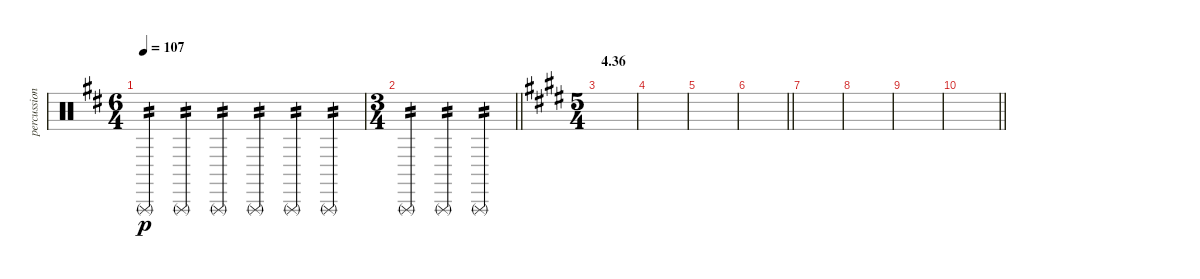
\track ("percussion" "percussion") {instrument percussion}
\staff {score}
\articulation defaults
\ts (6 4)
\tempo 107
\clef neutral
\ks d "Triangle (rnute)".4{tp 2 dy p} "Triangle (rnute)".4{tp 2} "Triangle (rnute)".4{tp 2} "Triangle (rnute)".4{tp 2} "Triangle (rnute)".4{tp 2} "Triangle (rnute)".4{tp 2}
|
\ts (3 4)
\barLineRight lightlight "Triangle (rnute)".4{tp 2} "Triangle (rnute)".4{tp 2} "Triangle (rnute)".4{tp 2}
|
\ts (5 4)
\section ("" "4.36")
\ks e
|
|
|
\barLineRight lightlight
|
|
|
|
\barLineRight lightlight
